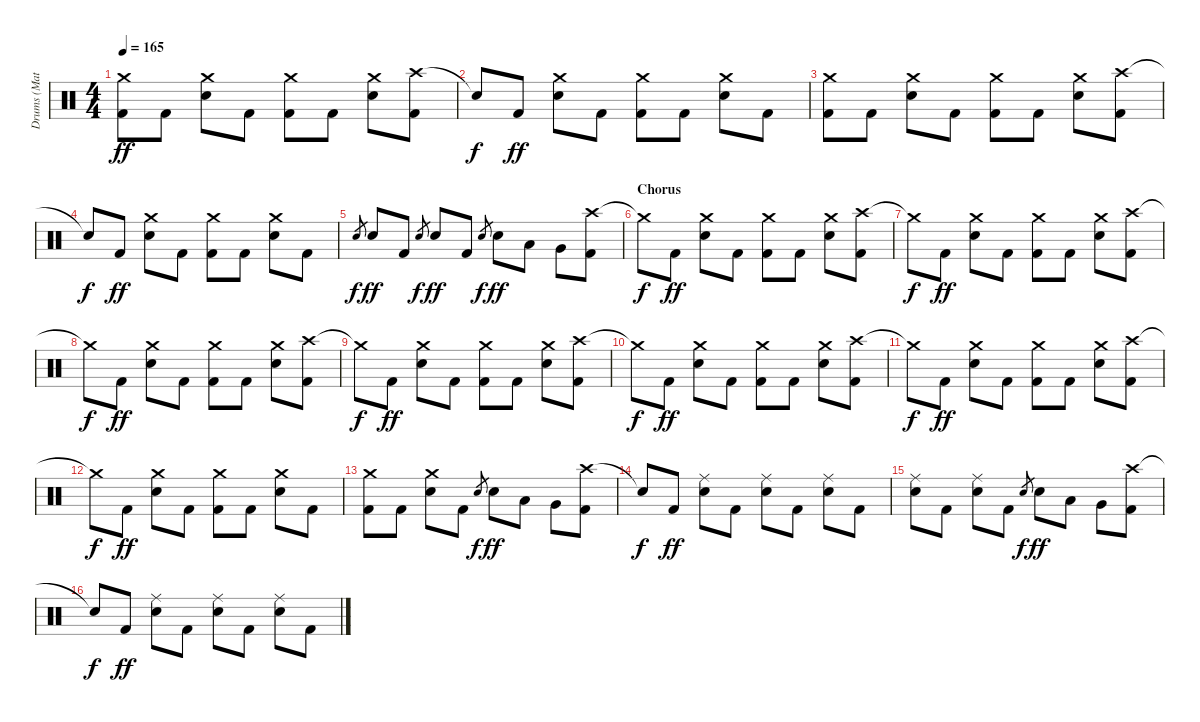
\track ("Drums (Matt)" "Drums (Mat") {instrument percussion}
\staff {score}
\articulation defaults
\ts (4 4)
\tempo 165
\clef neutral
\ks c
("Crash medium (hit)" "Kick (hit) 2").8{dy ff} "Kick (hit) 2".8 ("Crash medium (hit)" "Snare (hit) 2").8 "Kick (hit) 2".8 ("Crash medium (hit)" "Kick (hit) 2").8 "Kick (hit) 2".8 ("Crash medium (hit)" "Snare (hit) 2").8 ("Crash high (hit)" "Kick (hit) 2").8 |
"Snare (hit)"{t}.8{dy f} "Kick (hit) 2".8{dy ff} ("Crash medium (hit)" "Snare (hit) 2").8 "Kick (hit) 2".8 ("Crash medium (hit)" "Kick (hit) 2").8 "Kick (hit) 2".8 ("Crash medium (hit)" "Snare (hit) 2").8 "Kick (hit) 2".8 |
("Crash medium (hit)" "Kick (hit) 2").8 "Kick (hit) 2".8 ("Crash medium (hit)" "Snare (hit) 2").8 "Kick (hit) 2".8 ("Crash medium (hit)" "Kick (hit) 2").8 "Kick (hit) 2".8 ("Crash medium (hit)" "Snare (hit) 2").8 ("Crash high (hit)" "Kick (hit) 2").8 |
"Snare (hit)"{t}.8{dy f} "Kick (hit) 2".8{dy ff} ("Crash medium (hit)" "Snare (hit) 2").8 "Kick (hit) 2".8 ("Crash medium (hit)" "Kick (hit) 2").8 "Kick (hit) 2".8 ("Crash medium (hit)" "Snare (hit) 2").8 "Kick (hit) 2".8 |
"Snare (hit) 2".8{gr dy f} "Snare (hit) 2".8{dy ff} "Kick (hit) 2".8 "Snare (hit) 2".8{gr dy f} "Snare (hit) 2".8{dy ff} "Kick (hit) 2".8 "Snare (hit) 2".8{gr dy f} "Snare (hit) 2".8{dy ff} "Low Tom (hit)".8 "Very Low Tom (hit)".8 ("Crash high (hit)" "Kick (hit) 2").8 |
\section ("" "Chorus")
"Crash medium (hit)"{t}.8{dy f} "Kick (hit) 2".8{dy ff} ("Crash medium (hit)" "Snare (hit) 2").8 "Kick (hit) 2".8 ("Crash medium (hit)" "Kick (hit) 2").8 "Kick (hit) 2".8 ("Crash medium (hit)" "Snare (hit) 2").8 ("Crash high (hit)" "Kick (hit) 2").8 |
"Crash medium (hit)"{t}.8{dy f} "Kick (hit) 2".8{dy ff} ("Crash medium (hit)" "Snare (hit) 2").8 "Kick (hit) 2".8 ("Crash medium (hit)" "Kick (hit) 2").8 "Kick (hit) 2".8 ("Crash medium (hit)" "Snare (hit) 2").8 ("Crash high (hit)" "Kick (hit) 2").8 |
"Crash medium (hit)"{t}.8{dy f} "Kick (hit) 2".8{dy ff} ("Crash medium (hit)" "Snare (hit) 2").8 "Kick (hit) 2".8 ("Crash medium (hit)" "Kick (hit) 2").8 "Kick (hit) 2".8 ("Crash medium (hit)" "Snare (hit) 2").8 ("Crash high (hit)" "Kick (hit) 2").8 |
"Crash medium (hit)"{t}.8{dy f} "Kick (hit) 2".8{dy ff} ("Crash medium (hit)" "Snare (hit) 2").8 "Kick (hit) 2".8 ("Crash medium (hit)" "Kick (hit) 2").8 "Kick (hit) 2".8 ("Crash medium (hit)" "Snare (hit) 2").8 ("Crash high (hit)" "Kick (hit) 2").8 |
"Crash medium (hit)"{t}.8{dy f} "Kick (hit) 2".8{dy ff} ("Crash medium (hit)" "Snare (hit) 2").8 "Kick (hit) 2".8 ("Crash medium (hit)" "Kick (hit) 2").8 "Kick (hit) 2".8 ("Crash medium (hit)" "Snare (hit) 2").8 ("Crash high (hit)" "Kick (hit) 2").8 |
"Crash medium (hit)"{t}.8{dy f} "Kick (hit) 2".8{dy ff} ("Crash medium (hit)" "Snare (hit) 2").8 "Kick (hit) 2".8 ("Crash medium (hit)" "Kick (hit) 2").8 "Kick (hit) 2".8 ("Crash medium (hit)" "Snare (hit) 2").8 ("Crash high (hit)" "Kick (hit) 2").8 |
"Crash medium (hit)"{t}.8{dy f} "Kick (hit) 2".8{dy ff} ("Crash medium (hit)" "Snare (hit) 2").8 "Kick (hit) 2".8 ("Crash medium (hit)" "Kick (hit) 2").8 "Kick (hit) 2".8 ("Crash medium (hit)" "Snare (hit) 2").8 "Kick (hit) 2".8 |
("Crash medium (hit)" "Kick (hit) 2").8 "Kick (hit) 2".8 ("Crash medium (hit)" "Snare (hit) 2").8 "Kick (hit) 2".8 "Snare (hit) 2".8{gr dy f} "Snare (hit) 2".8{dy ff} "Low Tom (hit)".8 "Very Low Tom (hit)".8 ("Crash high (hit)" "Kick (hit) 2").8 |
"Snare (hit)"{t}.8{dy f} "Kick (hit) 2".8{dy ff} ("Ride (middle)" "Snare (hit) 2").8 "Kick (hit) 2".8 ("Ride (middle)" "Snare (hit) 2").8 "Kick (hit) 2".8 ("Ride (middle)" "Snare (hit) 2").8 "Kick (hit) 2".8 |
("Ride (middle)" "Snare (hit) 2").8 "Kick (hit) 2".8 ("Ride (middle)" "Snare (hit) 2").8 "Kick (hit) 2".8 "Snare (hit) 2".8{gr dy f} "Snare (hit) 2".8{dy ff} "Low Tom (hit)".8 "Very Low Tom (hit)".8 ("Crash high (hit)" "Kick (hit) 2").8 |
"Snare (hit)"{t}.8{dy f} "Kick (hit) 2".8{dy ff} ("Ride (middle)" "Snare (hit) 2").8 "Kick (hit) 2".8 ("Ride (middle)" "Snare (hit) 2").8 "Kick (hit) 2".8 ("Ride (middle)" "Snare (hit) 2").8 "Kick (hit) 2".8
